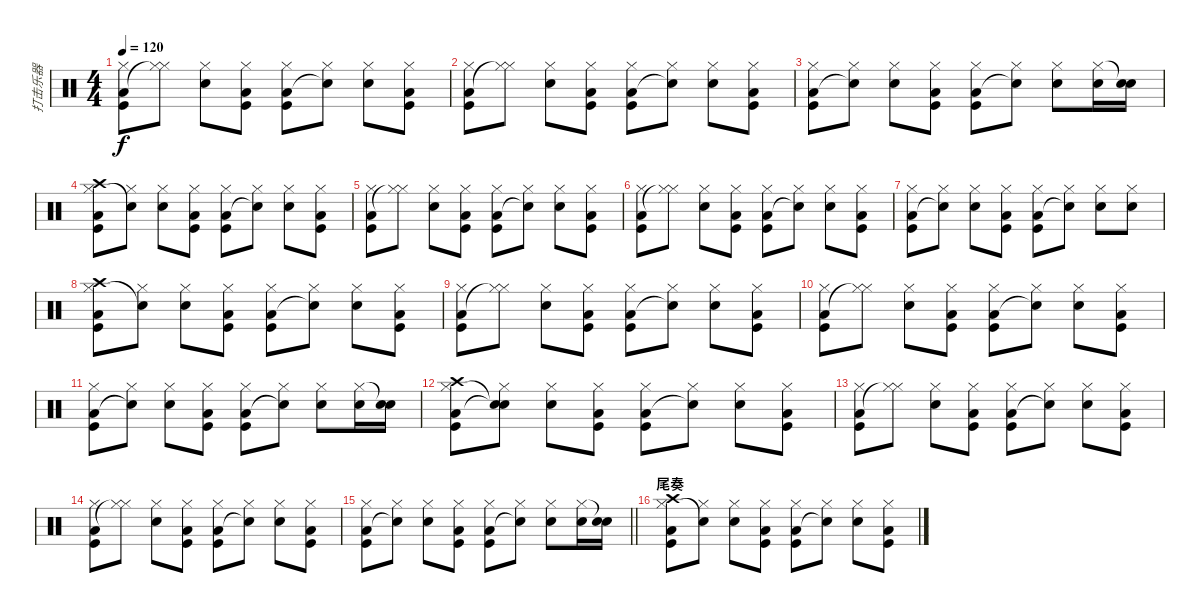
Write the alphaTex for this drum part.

\track ("打击乐器" "打击乐器") {instrument percussion}
\staff {score}
\articulation defaults
\ts (4 4)
\tempo 120
\clef neutral
\ks c
("Hi-Hat (closed)" "Low Floor Tom (hit)" "Kick (hit)").8{dy f} ("Hi-Hat (closed)" "Hi-Hat (closed)"{t}).8 ("Hi-Hat (closed)" "Electric Snare (hit)").8 ("Hi-Hat (closed)" "Low Floor Tom (hit)" "Kick (hit)").8 ("Hi-Hat (closed)" "Low Floor Tom (hit)" "Kick (hit)").8 ("Hi-Hat (closed)" "Snare (hit)"{t}).8 ("Hi-Hat (closed)" "Electric Snare (hit)").8 ("Hi-Hat (closed)" "Low Floor Tom (hit)" "Kick (hit)").8 |
("Hi-Hat (closed)" "Low Floor Tom (hit)" "Kick (hit)").8 ("Hi-Hat (closed)" "Hi-Hat (closed)"{t}).8 ("Hi-Hat (closed)" "Electric Snare (hit)").8 ("Hi-Hat (closed)" "Low Floor Tom (hit)" "Kick (hit)").8 ("Hi-Hat (closed)" "Low Floor Tom (hit)" "Kick (hit)").8 ("Hi-Hat (closed)" "Snare (hit)"{t}).8 ("Hi-Hat (closed)" "Electric Snare (hit)").8 ("Hi-Hat (closed)" "Low Floor Tom (hit)" "Kick (hit)").8 |
("Hi-Hat (closed)" "Low Floor Tom (hit)" "Kick (hit)").8 ("Hi-Hat (closed)" "Snare (hit)"{t}).8 ("Hi-Hat (closed)" "Electric Snare (hit)").8 ("Hi-Hat (closed)" "Low Floor Tom (hit)" "Kick (hit)").8 ("Hi-Hat (closed)" "Low Floor Tom (hit)" "Kick (hit)").8 ("Hi-Hat (closed)" "Snare (hit)"{t}).8 ("Hi-Hat (closed)" "Electric Snare (hit)").8 ("Hi-Hat (closed)" "Electric Snare (hit)").16 ("Snare (hit)"{t} "Electric Snare (hit)").16 |
("Crash high (hit)" "Hi-Hat (closed)" "Low Floor Tom (hit)" "Kick (hit)").8 ("Hi-Hat (closed)" "Snare (hit)"{t}).8 ("Hi-Hat (closed)" "Electric Snare (hit)").8 ("Hi-Hat (closed)" "Low Floor Tom (hit)" "Kick (hit)").8 ("Hi-Hat (closed)" "Low Floor Tom (hit)" "Kick (hit)").8 ("Hi-Hat (closed)" "Snare (hit)"{t}).8 ("Hi-Hat (closed)" "Electric Snare (hit)").8 ("Hi-Hat (closed)" "Low Floor Tom (hit)" "Kick (hit)").8 |
("Hi-Hat (closed)" "Low Floor Tom (hit)" "Kick (hit)").8 ("Hi-Hat (closed)" "Hi-Hat (closed)"{t}).8 ("Hi-Hat (closed)" "Electric Snare (hit)").8 ("Hi-Hat (closed)" "Low Floor Tom (hit)" "Kick (hit)").8 ("Hi-Hat (closed)" "Low Floor Tom (hit)" "Kick (hit)").8 ("Hi-Hat (closed)" "Snare (hit)"{t}).8 ("Hi-Hat (closed)" "Electric Snare (hit)").8 ("Hi-Hat (closed)" "Low Floor Tom (hit)" "Kick (hit)").8 |
("Hi-Hat (closed)" "Low Floor Tom (hit)" "Kick (hit)").8 ("Hi-Hat (closed)" "Hi-Hat (closed)"{t}).8 ("Hi-Hat (closed)" "Electric Snare (hit)").8 ("Hi-Hat (closed)" "Low Floor Tom (hit)" "Kick (hit)").8 ("Hi-Hat (closed)" "Low Floor Tom (hit)" "Kick (hit)").8 ("Hi-Hat (closed)" "Snare (hit)"{t}).8 ("Hi-Hat (closed)" "Electric Snare (hit)").8 ("Hi-Hat (closed)" "Low Floor Tom (hit)" "Kick (hit)").8 |
("Hi-Hat (closed)" "Low Floor Tom (hit)" "Kick (hit)").8 ("Hi-Hat (closed)" "Snare (hit)"{t}).8 ("Hi-Hat (closed)" "Electric Snare (hit)").8 ("Hi-Hat (closed)" "Low Floor Tom (hit)" "Kick (hit)").8 ("Hi-Hat (closed)" "Low Floor Tom (hit)" "Kick (hit)").8 ("Hi-Hat (closed)" "Snare (hit)"{t}).8 ("Hi-Hat (closed)" "Electric Snare (hit)").8 ("Hi-Hat (closed)" "Electric Snare (hit)").8 |
("Crash high (hit)" "Hi-Hat (closed)" "Low Floor Tom (hit)" "Kick (hit)").8 ("Hi-Hat (closed)" "Snare (hit)"{t}).8 ("Hi-Hat (closed)" "Electric Snare (hit)").8 ("Hi-Hat (closed)" "Low Floor Tom (hit)" "Kick (hit)").8 ("Hi-Hat (closed)" "Low Floor Tom (hit)" "Kick (hit)").8 ("Hi-Hat (closed)" "Snare (hit)"{t}).8 ("Hi-Hat (closed)" "Electric Snare (hit)").8 ("Hi-Hat (closed)" "Low Floor Tom (hit)" "Kick (hit)").8 |
("Hi-Hat (closed)" "Low Floor Tom (hit)" "Kick (hit)").8 ("Hi-Hat (closed)" "Hi-Hat (closed)"{t}).8 ("Hi-Hat (closed)" "Electric Snare (hit)").8 ("Hi-Hat (closed)" "Low Floor Tom (hit)" "Kick (hit)").8 ("Hi-Hat (closed)" "Low Floor Tom (hit)" "Kick (hit)").8 ("Hi-Hat (closed)" "Snare (hit)"{t}).8 ("Hi-Hat (closed)" "Electric Snare (hit)").8 ("Hi-Hat (closed)" "Low Floor Tom (hit)" "Kick (hit)").8 |
("Hi-Hat (closed)" "Low Floor Tom (hit)" "Kick (hit)").8 ("Hi-Hat (closed)" "Hi-Hat (closed)"{t}).8 ("Hi-Hat (closed)" "Electric Snare (hit)").8 ("Hi-Hat (closed)" "Low Floor Tom (hit)" "Kick (hit)").8 ("Hi-Hat (closed)" "Low Floor Tom (hit)" "Kick (hit)").8 ("Hi-Hat (closed)" "Snare (hit)"{t}).8 ("Hi-Hat (closed)" "Electric Snare (hit)").8 ("Hi-Hat (closed)" "Low Floor Tom (hit)" "Kick (hit)").8 |
("Hi-Hat (closed)" "Low Floor Tom (hit)" "Kick (hit)").8 ("Hi-Hat (closed)" "Snare (hit)"{t}).8 ("Hi-Hat (closed)" "Electric Snare (hit)").8 ("Hi-Hat (closed)" "Low Floor Tom (hit)" "Kick (hit)").8 ("Hi-Hat (closed)" "Low Floor Tom (hit)" "Kick (hit)").8 ("Hi-Hat (closed)" "Snare (hit)"{t}).8 ("Hi-Hat (closed)" "Electric Snare (hit)").8 ("Hi-Hat (closed)" "Electric Snare (hit)").16 ("Snare (hit)"{t} "Electric Snare (hit)").16 |
("Crash high (hit)" "Hi-Hat (closed)" "Low Floor Tom (hit)" "Kick (hit)").8 ("Hi-Hat (closed)" "Snare (hit)"{t} "Snare (hit)"{t}).8 ("Hi-Hat (closed)" "Electric Snare (hit)").8 ("Hi-Hat (closed)" "Low Floor Tom (hit)" "Kick (hit)").8 ("Hi-Hat (closed)" "Low Floor Tom (hit)" "Kick (hit)").8 ("Hi-Hat (closed)" "Snare (hit)"{t}).8 ("Hi-Hat (closed)" "Electric Snare (hit)").8 ("Hi-Hat (closed)" "Low Floor Tom (hit)" "Kick (hit)").8 |
("Hi-Hat (closed)" "Low Floor Tom (hit)" "Kick (hit)").8 ("Hi-Hat (closed)" "Hi-Hat (closed)"{t}).8 ("Hi-Hat (closed)" "Electric Snare (hit)").8 ("Hi-Hat (closed)" "Low Floor Tom (hit)" "Kick (hit)").8 ("Hi-Hat (closed)" "Low Floor Tom (hit)" "Kick (hit)").8 ("Hi-Hat (closed)" "Snare (hit)"{t}).8 ("Hi-Hat (closed)" "Electric Snare (hit)").8 ("Hi-Hat (closed)" "Low Floor Tom (hit)" "Kick (hit)").8 |
("Hi-Hat (closed)" "Low Floor Tom (hit)" "Kick (hit)").8 ("Hi-Hat (closed)" "Hi-Hat (closed)"{t}).8 ("Hi-Hat (closed)" "Electric Snare (hit)").8 ("Hi-Hat (closed)" "Low Floor Tom (hit)" "Kick (hit)").8 ("Hi-Hat (closed)" "Low Floor Tom (hit)" "Kick (hit)").8 ("Hi-Hat (closed)" "Snare (hit)"{t}).8 ("Hi-Hat (closed)" "Electric Snare (hit)").8 ("Hi-Hat (closed)" "Low Floor Tom (hit)" "Kick (hit)").8 |
\barLineRight lightlight
("Hi-Hat (closed)" "Low Floor Tom (hit)" "Kick (hit)").8 ("Hi-Hat (closed)" "Snare (hit)"{t}).8 ("Hi-Hat (closed)" "Electric Snare (hit)").8 ("Hi-Hat (closed)" "Low Floor Tom (hit)" "Kick (hit)").8 ("Hi-Hat (closed)" "Low Floor Tom (hit)" "Kick (hit)").8 ("Hi-Hat (closed)" "Snare (hit)"{t}).8 ("Hi-Hat (closed)" "Electric Snare (hit)").8 ("Hi-Hat (closed)" "Electric Snare (hit)").16 ("Snare (hit)"{t} "Electric Snare (hit)").16 |
\section ("" "尾奏")
("Crash high (hit)" "Hi-Hat (closed)" "Low Floor Tom (hit)" "Kick (hit)").8 ("Hi-Hat (closed)" "Snare (hit)"{t}).8 ("Hi-Hat (closed)" "Electric Snare (hit)").8 ("Hi-Hat (closed)" "Low Floor Tom (hit)" "Kick (hit)").8 ("Hi-Hat (closed)" "Low Floor Tom (hit)" "Kick (hit)").8 ("Hi-Hat (closed)" "Snare (hit)"{t}).8 ("Hi-Hat (closed)" "Electric Snare (hit)").8 ("Hi-Hat (closed)" "Low Floor Tom (hit)" "Kick (hit)").8
